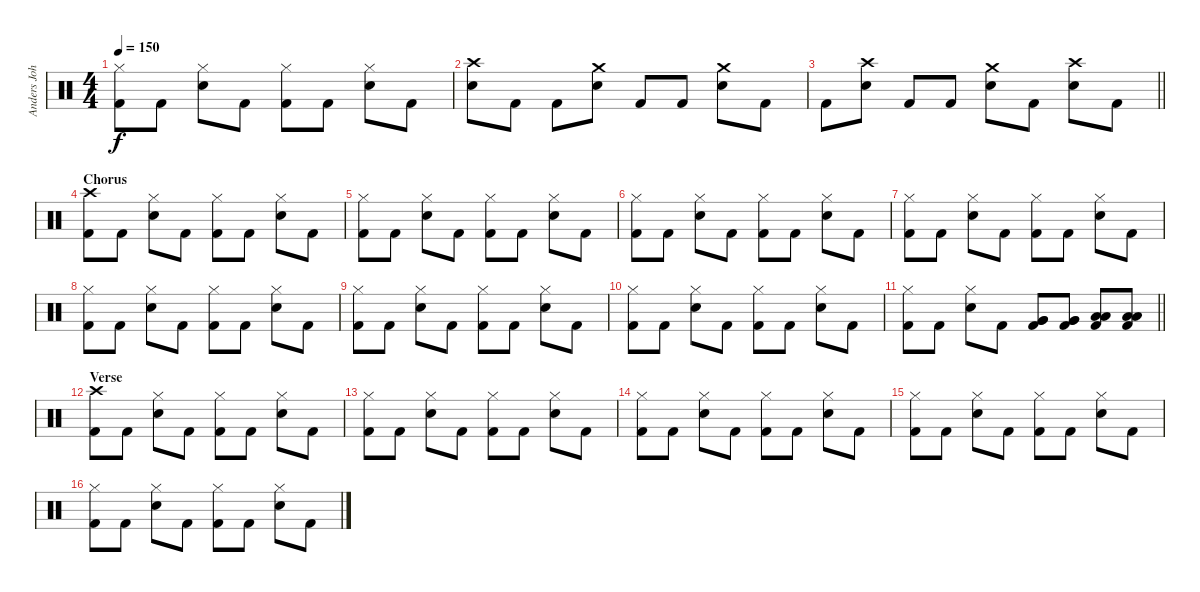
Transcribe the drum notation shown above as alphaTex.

\track ("Anders Johansson" "Anders Joh") {instrument percussion}
\staff {score}
\articulation defaults
\ts (4 4)
\tempo 150
\clef neutral
\ks c
("Hi-Hat (closed)" "Kick (hit) 2").8{dy f} "Kick (hit) 2".8 ("Hi-Hat (closed)" "Snare (hit) 2").8 "Kick (hit) 2".8 ("Hi-Hat (closed)" "Kick (hit) 2").8 "Kick (hit) 2".8 ("Hi-Hat (closed)" "Snare (hit) 2").8 "Kick (hit) 2".8 |
("Crash high (hit)" "Snare (hit) 2").8 "Kick (hit) 2".8 "Kick (hit) 2".8 ("Crash medium (hit)" "Snare (hit) 2").8 "Kick (hit) 2".8 "Kick (hit) 2".8 ("Crash medium (hit)" "Snare (hit) 2").8 "Kick (hit) 2".8 |
\barLineRight lightlight "Kick (hit) 2".8
("Crash high (hit)" "Snare (hit) 2").8 "Kick (hit) 2".8 "Kick (hit) 2".8 ("Crash medium (hit)" "Snare (hit) 2").8 "Kick (hit) 2".8 ("Crash high (hit)" "Snare (hit) 2").8 "Kick (hit) 2".8 |
\section ("" "Chorus")
("Crash high (hit)" "Kick (hit) 2").8 "Kick (hit) 2".8 ("Hi-Hat (closed)" "Snare (hit) 2").8 "Kick (hit) 2".8 ("Hi-Hat (closed)" "Kick (hit) 2").8 "Kick (hit) 2".8 ("Hi-Hat (closed)" "Snare (hit) 2").8 "Kick (hit) 2".8 |
("Hi-Hat (closed)" "Kick (hit) 2").8 "Kick (hit) 2".8 ("Hi-Hat (closed)" "Snare (hit) 2").8 "Kick (hit) 2".8 ("Hi-Hat (closed)" "Kick (hit) 2").8 "Kick (hit) 2".8 ("Hi-Hat (closed)" "Snare (hit) 2").8 "Kick (hit) 2".8 |
("Hi-Hat (closed)" "Kick (hit) 2").8 "Kick (hit) 2".8 ("Hi-Hat (closed)" "Snare (hit) 2").8 "Kick (hit) 2".8 ("Hi-Hat (closed)" "Kick (hit) 2").8 "Kick (hit) 2".8 ("Hi-Hat (closed)" "Snare (hit) 2").8 "Kick (hit) 2".8 |
("Hi-Hat (closed)" "Kick (hit) 2").8 "Kick (hit) 2".8 ("Hi-Hat (closed)" "Snare (hit) 2").8 "Kick (hit) 2".8 ("Hi-Hat (closed)" "Kick (hit) 2").8 "Kick (hit) 2".8 ("Hi-Hat (closed)" "Snare (hit) 2").8 "Kick (hit) 2".8 |
("Hi-Hat (closed)" "Kick (hit) 2").8 "Kick (hit) 2".8 ("Hi-Hat (closed)" "Snare (hit) 2").8 "Kick (hit) 2".8 ("Hi-Hat (closed)" "Kick (hit) 2").8 "Kick (hit) 2".8 ("Hi-Hat (closed)" "Snare (hit) 2").8 "Kick (hit) 2".8 |
("Hi-Hat (closed)" "Kick (hit) 2").8 "Kick (hit) 2".8 ("Hi-Hat (closed)" "Snare (hit) 2").8 "Kick (hit) 2".8 ("Hi-Hat (closed)" "Kick (hit) 2").8 "Kick (hit) 2".8 ("Hi-Hat (closed)" "Snare (hit) 2").8 "Kick (hit) 2".8 |
("Hi-Hat (closed)" "Kick (hit) 2").8 "Kick (hit) 2".8 ("Hi-Hat (closed)" "Snare (hit) 2").8 "Kick (hit) 2".8 ("Hi-Hat (closed)" "Kick (hit) 2").8 "Kick (hit) 2".8 ("Hi-Hat (closed)" "Snare (hit) 2").8 "Kick (hit) 2".8 |
\barLineRight lightlight
("Hi-Hat (closed)" "Kick (hit) 2").8 "Kick (hit) 2".8 ("Hi-Hat (closed)" "Snare (hit) 2").8 "Kick (hit) 2".8 ("Very Low Tom (hit)" "Very Low Tom (hit)" "Kick (hit) 2").8 ("Very Low Tom (hit)" "Very Low Tom (hit)" "Kick (hit) 2").8 ("Low Floor Tom (hit)" "Low Floor Tom (hit)" "Kick (hit) 2").8 ("Low Floor Tom (hit)" "Low Floor Tom (hit)" "Kick (hit) 2").8 |
\section ("" "Verse")
("Crash high (hit)" "Kick (hit) 2").8 "Kick (hit) 2".8 ("Hi-Hat (closed)" "Snare (hit) 2").8 "Kick (hit) 2".8 ("Hi-Hat (closed)" "Kick (hit) 2").8 "Kick (hit) 2".8 ("Hi-Hat (closed)" "Snare (hit) 2").8 "Kick (hit) 2".8 |
("Hi-Hat (closed)" "Kick (hit) 2").8 "Kick (hit) 2".8 ("Hi-Hat (closed)" "Snare (hit) 2").8 "Kick (hit) 2".8 ("Hi-Hat (closed)" "Kick (hit) 2").8 "Kick (hit) 2".8 ("Hi-Hat (closed)" "Snare (hit) 2").8 "Kick (hit) 2".8 |
("Hi-Hat (closed)" "Kick (hit) 2").8 "Kick (hit) 2".8 ("Hi-Hat (closed)" "Snare (hit) 2").8 "Kick (hit) 2".8 ("Hi-Hat (closed)" "Kick (hit) 2").8 "Kick (hit) 2".8 ("Hi-Hat (closed)" "Snare (hit) 2").8 "Kick (hit) 2".8 |
("Hi-Hat (closed)" "Kick (hit) 2").8 "Kick (hit) 2".8 ("Hi-Hat (closed)" "Snare (hit) 2").8 "Kick (hit) 2".8 ("Hi-Hat (closed)" "Kick (hit) 2").8 "Kick (hit) 2".8 ("Hi-Hat (closed)" "Snare (hit) 2").8 "Kick (hit) 2".8 |
("Hi-Hat (closed)" "Kick (hit) 2").8 "Kick (hit) 2".8 ("Hi-Hat (closed)" "Snare (hit) 2").8 "Kick (hit) 2".8 ("Hi-Hat (closed)" "Kick (hit) 2").8 "Kick (hit) 2".8 ("Hi-Hat (closed)" "Snare (hit) 2").8 "Kick (hit) 2".8
